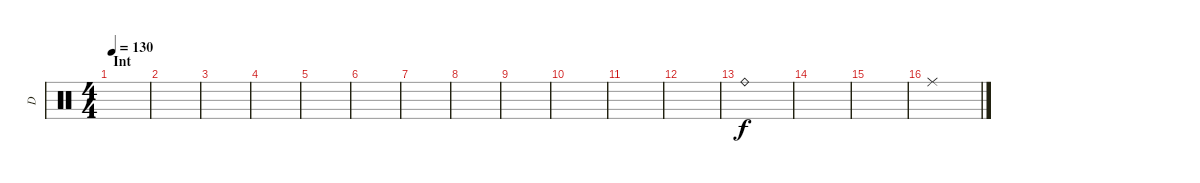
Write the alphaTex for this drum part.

\track ("D" "D") {instrument percussion}
\staff {score}
\articulation defaults
\ts (4 4)
\section ("" "Int")
\tempo 130
\clef neutral
\ks c
|
|
|
|
|
|
|
|
|
|
|
|
"Ride (bell)".1 |
|
|
"Ride (middle)".1
